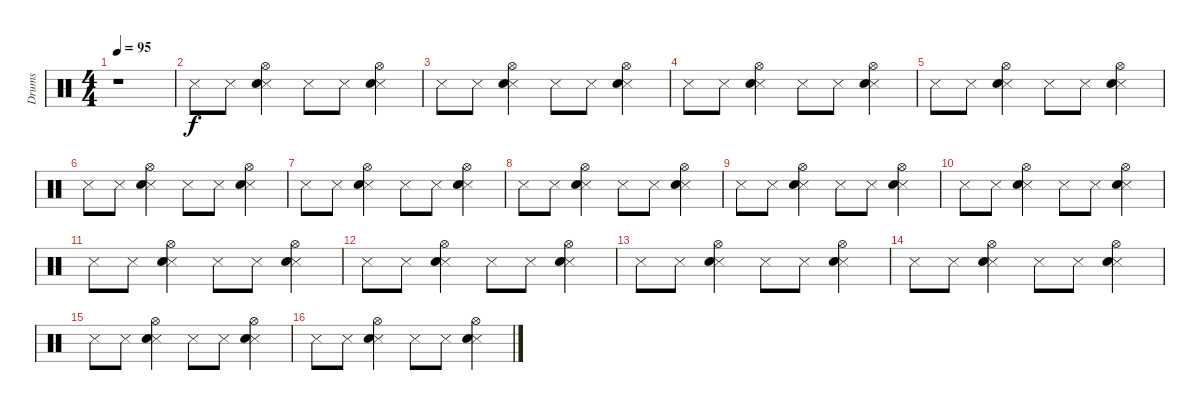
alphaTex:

\track ("Drums" "Drums") {instrument percussion}
\staff {score}
\articulation defaults
\ts (4 4)
\tempo 95
\clef neutral
\ks c
r.1{dy f} |
"Snare (side stick) 3".8 "Snare (side stick) 3".8 ("Snare (side stick) 3" "Hi-Hat (open)" "Snare (hit) 2").4 "Snare (side stick) 3".8 "Snare (side stick) 3".8 ("Snare (side stick) 3" "Hi-Hat (open)" "Snare (hit) 2").4 |
"Snare (side stick) 3".8 "Snare (side stick) 3".8 ("Snare (side stick) 3" "Hi-Hat (open)" "Snare (hit) 2").4 "Snare (side stick) 3".8 "Snare (side stick) 3".8 ("Snare (side stick) 3" "Hi-Hat (open)" "Snare (hit) 2").4 |
"Snare (side stick) 3".8 "Snare (side stick) 3".8 ("Snare (side stick) 3" "Hi-Hat (open)" "Snare (hit) 2").4 "Snare (side stick) 3".8 "Snare (side stick) 3".8 ("Snare (side stick) 3" "Hi-Hat (open)" "Snare (hit) 2").4 |
"Snare (side stick) 3".8 "Snare (side stick) 3".8 ("Snare (side stick) 3" "Hi-Hat (open)" "Snare (hit) 2").4 "Snare (side stick) 3".8 "Snare (side stick) 3".8 ("Snare (side stick) 3" "Hi-Hat (open)" "Snare (hit) 2").4 |
"Snare (side stick) 3".8 "Snare (side stick) 3".8 ("Snare (side stick) 3" "Hi-Hat (open)" "Snare (hit) 2").4 "Snare (side stick) 3".8 "Snare (side stick) 3".8 ("Snare (side stick) 3" "Hi-Hat (open)" "Snare (hit) 2").4 |
"Snare (side stick) 3".8 "Snare (side stick) 3".8 ("Snare (side stick) 3" "Hi-Hat (open)" "Snare (hit) 2").4 "Snare (side stick) 3".8 "Snare (side stick) 3".8 ("Snare (side stick) 3" "Hi-Hat (open)" "Snare (hit) 2").4 |
"Snare (side stick) 3".8 "Snare (side stick) 3".8 ("Snare (side stick) 3" "Hi-Hat (open)" "Snare (hit) 2").4 "Snare (side stick) 3".8 "Snare (side stick) 3".8 ("Snare (side stick) 3" "Hi-Hat (open)" "Snare (hit) 2").4 |
"Snare (side stick) 3".8 "Snare (side stick) 3".8 ("Snare (side stick) 3" "Hi-Hat (open)" "Snare (hit) 2").4 "Snare (side stick) 3".8 "Snare (side stick) 3".8 ("Snare (side stick) 3" "Hi-Hat (open)" "Snare (hit) 2").4 |
"Snare (side stick) 3".8 "Snare (side stick) 3".8 ("Snare (side stick) 3" "Hi-Hat (open)" "Snare (hit) 2").4 "Snare (side stick) 3".8 "Snare (side stick) 3".8 ("Snare (side stick) 3" "Hi-Hat (open)" "Snare (hit) 2").4 |
"Snare (side stick) 3".8 "Snare (side stick) 3".8 ("Snare (side stick) 3" "Hi-Hat (open)" "Snare (hit) 2").4 "Snare (side stick) 3".8 "Snare (side stick) 3".8 ("Snare (side stick) 3" "Hi-Hat (open)" "Snare (hit) 2").4 |
"Snare (side stick) 3".8 "Snare (side stick) 3".8 ("Snare (side stick) 3" "Hi-Hat (open)" "Snare (hit) 2").4 "Snare (side stick) 3".8 "Snare (side stick) 3".8 ("Snare (side stick) 3" "Hi-Hat (open)" "Snare (hit) 2").4 |
"Snare (side stick) 3".8 "Snare (side stick) 3".8 ("Snare (side stick) 3" "Hi-Hat (open)" "Snare (hit) 2").4 "Snare (side stick) 3".8 "Snare (side stick) 3".8 ("Snare (side stick) 3" "Hi-Hat (open)" "Snare (hit) 2").4 |
"Snare (side stick) 3".8 "Snare (side stick) 3".8 ("Snare (side stick) 3" "Hi-Hat (open)" "Snare (hit) 2").4 "Snare (side stick) 3".8 "Snare (side stick) 3".8 ("Snare (side stick) 3" "Hi-Hat (open)" "Snare (hit) 2").4 |
"Snare (side stick) 3".8 "Snare (side stick) 3".8 ("Snare (side stick) 3" "Hi-Hat (open)" "Snare (hit) 2").4 "Snare (side stick) 3".8 "Snare (side stick) 3".8 ("Snare (side stick) 3" "Hi-Hat (open)" "Snare (hit) 2").4 |
"Snare (side stick) 3".8 "Snare (side stick) 3".8 ("Snare (side stick) 3" "Hi-Hat (open)" "Snare (hit) 2").4 "Snare (side stick) 3".8 "Snare (side stick) 3".8 ("Snare (side stick) 3" "Hi-Hat (open)" "Snare (hit) 2").4
